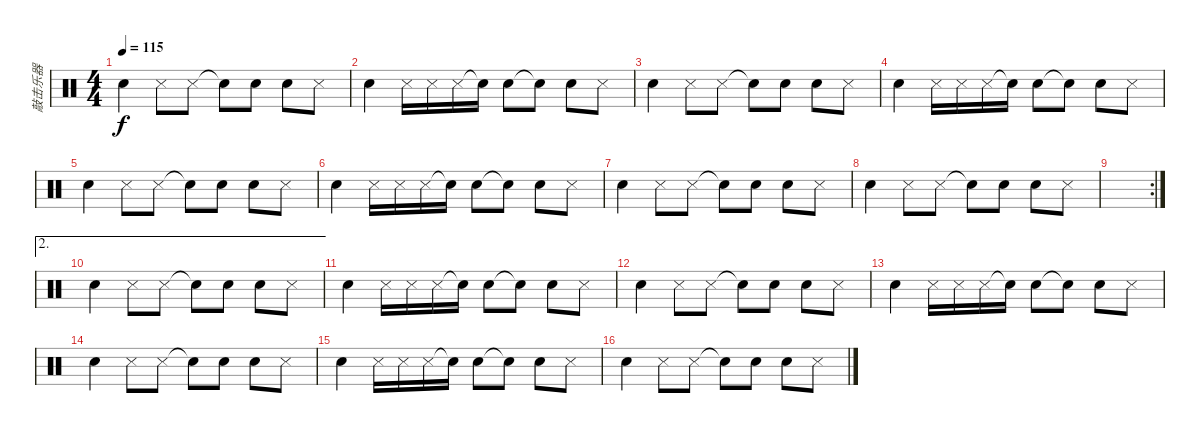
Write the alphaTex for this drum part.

\track ("敲击乐器" "敲击乐器") {instrument percussion}
\staff {score}
\articulation defaults
\ts (4 4)
\tempo 115
\clef neutral
\ks c "Hand Clap (hit)".4{dy f} "Snare (side stick) 3".8 "Snare (side stick) 3".8 "Snare (hit)"{t}.8 "Hand Clap (hit)".8 "Hand Clap (hit)".8 "Snare (side stick) 3".8
|
"Hand Clap (hit)".4 "Snare (side stick) 3".16 "Snare (side stick) 3".16 "Snare (side stick) 3".16 "Snare (hit)"{t}.16 "Hand Clap (hit)".8 "Snare (hit)"{t}.8 "Hand Clap (hit)".8 "Snare (side stick) 3".8 |
"Hand Clap (hit)".4 "Snare (side stick) 3".8 "Snare (side stick) 3".8 "Snare (hit)"{t}.8 "Hand Clap (hit)".8 "Hand Clap (hit)".8 "Snare (side stick) 3".8 |
"Hand Clap (hit)".4 "Snare (side stick) 3".16 "Snare (side stick) 3".16 "Snare (side stick) 3".16 "Snare (hit)"{t}.16 "Hand Clap (hit)".8 "Snare (hit)"{t}.8 "Hand Clap (hit)".8 "Snare (side stick) 3".8 |
"Hand Clap (hit)".4 "Snare (side stick) 3".8 "Snare (side stick) 3".8 "Snare (hit)"{t}.8 "Hand Clap (hit)".8 "Hand Clap (hit)".8 "Snare (side stick) 3".8 |
"Hand Clap (hit)".4 "Snare (side stick) 3".16 "Snare (side stick) 3".16 "Snare (side stick) 3".16 "Snare (hit)"{t}.16 "Hand Clap (hit)".8 "Snare (hit)"{t}.8 "Hand Clap (hit)".8 "Snare (side stick) 3".8 |
"Hand Clap (hit)".4 "Snare (side stick) 3".8 "Snare (side stick) 3".8 "Snare (hit)"{t}.8 "Hand Clap (hit)".8 "Hand Clap (hit)".8 "Snare (side stick) 3".8 |
"Hand Clap (hit)".4 "Snare (side stick) 3".8 "Snare (side stick) 3".8 "Snare (hit)"{t}.8 "Hand Clap (hit)".8 "Hand Clap (hit)".8 "Snare (side stick) 3".8 |
\rc 2
|
\ae 2 "Hand Clap (hit)".4 "Snare (side stick) 3".8 "Snare (side stick) 3".8 "Snare (hit)"{t}.8 "Hand Clap (hit)".8 "Hand Clap (hit)".8 "Snare (side stick) 3".8
|
"Hand Clap (hit)".4 "Snare (side stick) 3".16 "Snare (side stick) 3".16 "Snare (side stick) 3".16 "Snare (hit)"{t}.16 "Hand Clap (hit)".8 "Snare (hit)"{t}.8 "Hand Clap (hit)".8 "Snare (side stick) 3".8 |
"Hand Clap (hit)".4 "Snare (side stick) 3".8 "Snare (side stick) 3".8 "Snare (hit)"{t}.8 "Hand Clap (hit)".8 "Hand Clap (hit)".8 "Snare (side stick) 3".8 |
"Hand Clap (hit)".4 "Snare (side stick) 3".16 "Snare (side stick) 3".16 "Snare (side stick) 3".16 "Snare (hit)"{t}.16 "Hand Clap (hit)".8 "Snare (hit)"{t}.8 "Hand Clap (hit)".8 "Snare (side stick) 3".8 |
"Hand Clap (hit)".4 "Snare (side stick) 3".8 "Snare (side stick) 3".8 "Snare (hit)"{t}.8 "Hand Clap (hit)".8 "Hand Clap (hit)".8 "Snare (side stick) 3".8 |
"Hand Clap (hit)".4 "Snare (side stick) 3".16 "Snare (side stick) 3".16 "Snare (side stick) 3".16 "Snare (hit)"{t}.16 "Hand Clap (hit)".8 "Snare (hit)"{t}.8 "Hand Clap (hit)".8 "Snare (side stick) 3".8 |
"Hand Clap (hit)".4 "Snare (side stick) 3".8 "Snare (side stick) 3".8 "Snare (hit)"{t}.8 "Hand Clap (hit)".8 "Hand Clap (hit)".8 "Snare (side stick) 3".8
